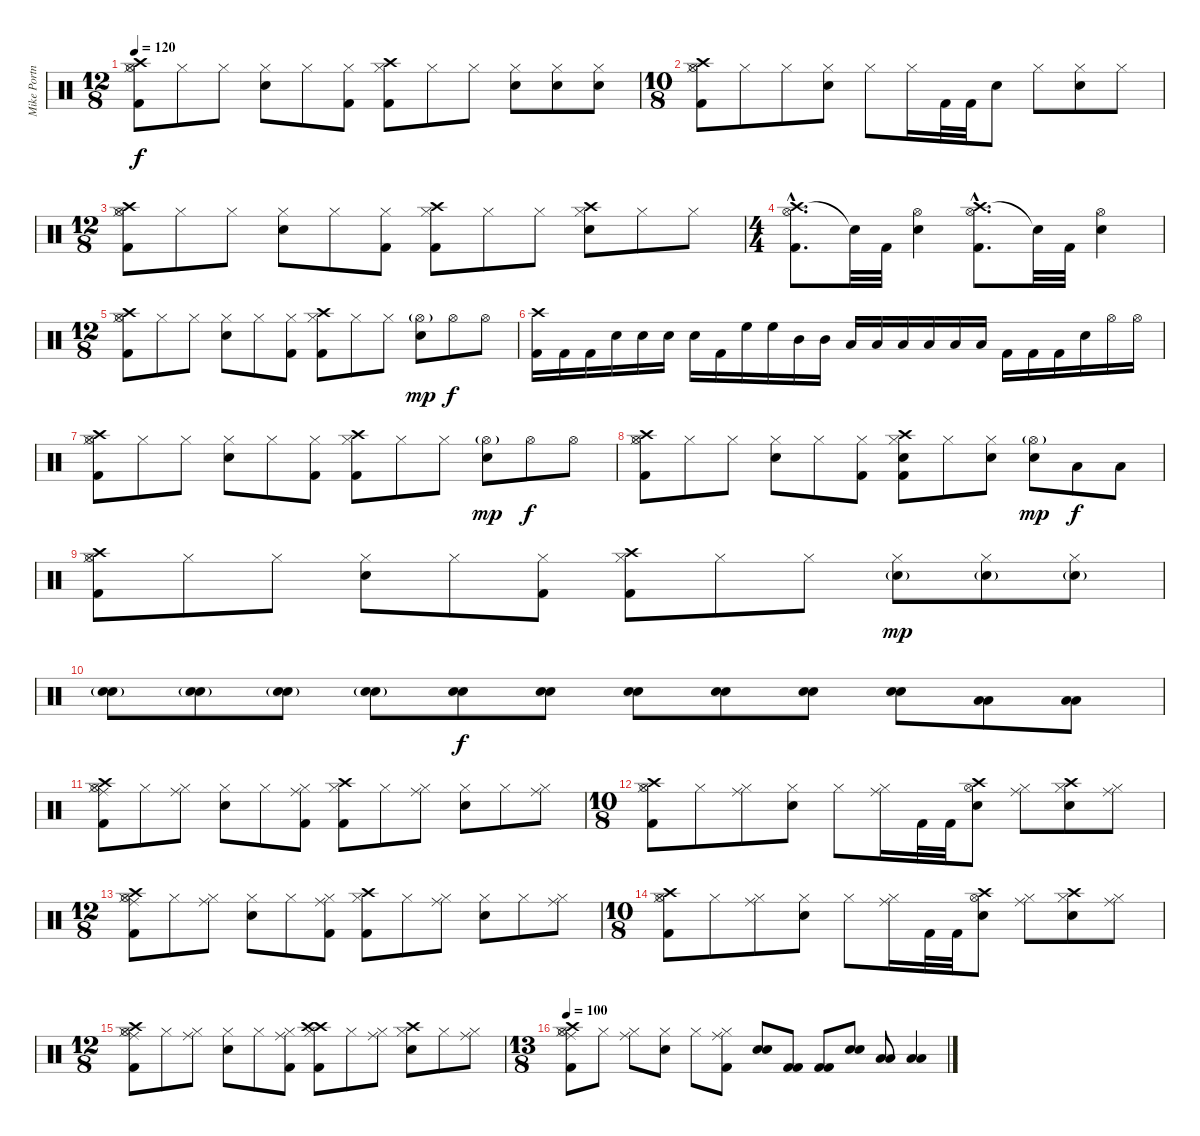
\track ("Mike Portnoy Drums" "Mike Portn") {instrument percussion}
\staff {score}
\articulation defaults
\ts (12 8)
\tempo 120
\clef neutral
\ks c
("Hi-Hat (open)" "Kick (hit) 2" "Crash high (hit)" "Hi-Hat (closed)").8{dy f} "Hi-Hat (closed)".8 "Hi-Hat (closed)".8 ("Snare (hit) 2" "Hi-Hat (closed)").8 "Hi-Hat (closed)".8 ("Kick (hit) 2" "Hi-Hat (closed)").8 ("Kick (hit) 2" "Crash high (hit)" "Hi-Hat (closed)").8 "Hi-Hat (closed)".8 "Hi-Hat (closed)".8 ("Snare (hit) 2" "Hi-Hat (closed)").8 ("Snare (hit) 2" "Hi-Hat (closed)").8 ("Snare (hit) 2" "Hi-Hat (closed)").8 |
\ts (10 8)
("Crash high (hit)" "Hi-Hat (open)" "Kick (hit) 2" "Hi-Hat (closed)").8 "Hi-Hat (closed)".8 "Hi-Hat (closed)".8 ("Snare (hit) 2" "Hi-Hat (closed)").8 "Hi-Hat (closed)".8 "Hi-Hat (closed)".16 "Kick (hit) 2".32 "Kick (hit) 2".32 "Snare (hit) 2".8 "Hi-Hat (closed)".8 ("Snare (hit) 2" "Hi-Hat (closed)").8 "Hi-Hat (closed)".8 |
\ts (12 8)
("Hi-Hat (open)" "Kick (hit) 2" "Crash high (hit)" "Hi-Hat (closed)").8 "Hi-Hat (closed)".8 "Hi-Hat (closed)".8 ("Snare (hit) 2" "Hi-Hat (closed)").8 "Hi-Hat (closed)".8 ("Kick (hit) 2" "Hi-Hat (closed)").8 ("Kick (hit) 2" "Crash high (hit)" "Hi-Hat (closed)").8 "Hi-Hat (closed)".8 "Hi-Hat (closed)".8 ("Snare (hit) 2" "Crash high (hit)" "Hi-Hat (closed)").8 "Hi-Hat (closed)".8 "Hi-Hat (closed)".8 |
\ts (4 4)
("Crash high (hit)"{hac} "Hi-Hat (open)"{hac} "Kick (hit) 2"{hac}).8{d} "Snare (hit)"{t}.32 "Kick (hit) 2".32 ("Hi-Hat (open)" "Snare (hit) 2").4 ("Crash high (hit)"{hac} "Hi-Hat (open)"{hac} "Kick (hit) 2"{hac}).8{d} "Snare (hit)"{t}.32 "Kick (hit) 2".32 ("Hi-Hat (open)" "Snare (hit) 2").4 |
\ts (12 8)
("Hi-Hat (open)" "Kick (hit) 2" "Crash high (hit)" "Hi-Hat (closed)").8 "Hi-Hat (closed)".8 "Hi-Hat (closed)".8 ("Snare (hit) 2" "Hi-Hat (closed)").8 "Hi-Hat (closed)".8 ("Kick (hit) 2" "Hi-Hat (closed)").8 ("Crash high (hit)" "Kick (hit) 2" "Hi-Hat (closed)").8 "Hi-Hat (closed)".8 "Hi-Hat (closed)".8 ("Snare (hit) 2" "Hi-Hat (open)"{g}).8{dy mp} "Hi-Hat (open)".8{dy f} "Hi-Hat (open)".8 |
("Crash high (hit)" "Kick (hit) 2").16 "Kick (hit) 2".16 "Kick (hit) 2".16 "Snare (hit) 2".16 "Snare (hit) 2".16 "Snare (hit) 2".16 "Snare (hit) 2".16 "Kick (hit) 2".16 "High Floor Tom (hit)".16 "High Floor Tom (hit)".16 "Mid Tom (hit)".16 "Mid Tom (hit)".16 "Low Tom (hit)".16 "Low Tom (hit)".16 "Low Floor Tom (hit)".16 "Low Floor Tom (hit)".16 "Low Floor Tom (hit)".16 "Low Floor Tom (hit)".16 "Kick (hit) 2".16 "Kick (hit) 2".16 "Kick (hit) 2".16 "Snare (hit) 2".16 "Hi-Hat (open)".16 "Hi-Hat (open)".16 |
("Hi-Hat (open)" "Kick (hit) 2" "Crash high (hit)" "Hi-Hat (closed)").8 "Hi-Hat (closed)".8 "Hi-Hat (closed)".8 ("Snare (hit) 2" "Hi-Hat (closed)").8 "Hi-Hat (closed)".8 ("Kick (hit) 2" "Hi-Hat (closed)").8 ("Crash high (hit)" "Kick (hit) 2" "Hi-Hat (closed)").8 "Hi-Hat (closed)".8 "Hi-Hat (closed)".8 ("Snare (hit) 2" "Hi-Hat (open)"{g}).8{dy mp} "Hi-Hat (open)".8{dy f} "Hi-Hat (open)".8 |
("Hi-Hat (open)" "Kick (hit) 2" "Crash high (hit)" "Hi-Hat (closed)").8 "Hi-Hat (closed)".8 "Hi-Hat (closed)".8 ("Snare (hit) 2" "Hi-Hat (closed)").8 "Hi-Hat (closed)".8 ("Kick (hit) 2" "Hi-Hat (closed)").8 ("Crash high (hit)" "Kick (hit) 2" "Snare (hit) 2" "Hi-Hat (closed)").8 "Hi-Hat (closed)".8 ("Snare (hit) 2" "Hi-Hat (closed)").8 ("Snare (hit) 2" "Hi-Hat (open)"{g}).8{dy mp} "Low Tom (hit)".8{dy f} "Low Floor Tom (hit)".8 |
("Hi-Hat (open)" "Kick (hit) 2" "Crash high (hit)" "Hi-Hat (closed)").8 "Hi-Hat (closed)".8 "Hi-Hat (closed)".8 ("Snare (hit) 2" "Hi-Hat (closed)").8 "Hi-Hat (closed)".8 ("Kick (hit) 2" "Hi-Hat (closed)").8 ("Crash high (hit)" "Kick (hit) 2" "Hi-Hat (closed)").8 "Hi-Hat (closed)".8 "Hi-Hat (closed)".8 ("Snare (hit) 2"{g} "Hi-Hat (closed)").8{dy mp} ("Snare (hit) 2"{g} "Hi-Hat (closed)").8 ("Snare (hit) 2"{g} "Hi-Hat (closed)").8 |
("Snare (hit) 2"{g} "Snare (hit) 2"{g}).8 ("Snare (hit) 2"{g} "Snare (hit) 2"{g}).8 ("Snare (hit) 2"{g} "Snare (hit) 2"{g}).8 ("Snare (hit) 2"{g} "Snare (hit) 2"{g}).8 ("Snare (hit) 2" "Snare (hit) 2").8{dy f} ("Snare (hit) 2" "Snare (hit) 2").8 ("Snare (hit) 2" "Snare (hit) 2").8 ("Snare (hit) 2" "Snare (hit) 2").8 ("Snare (hit) 2" "Snare (hit) 2").8 ("Snare (hit) 2" "Snare (hit) 2").8 ("Low Tom (hit)" "Low Tom (hit)").8 ("Low Floor Tom (hit)" "Low Floor Tom (hit)").8 |
("Ride (middle)" "Hi-Hat (open)" "Kick (hit) 2" "Crash high (hit)" "Hi-Hat (closed)").8 "Hi-Hat (closed)".8 ("Ride (middle)" "Hi-Hat (closed)").8 ("Snare (hit) 2" "Hi-Hat (closed)").8 "Hi-Hat (closed)".8 ("Ride (middle)" "Kick (hit) 2" "Hi-Hat (closed)").8 ("Crash high (hit)" "Kick (hit) 2" "Hi-Hat (closed)").8 "Hi-Hat (closed)".8 ("Ride (middle)" "Hi-Hat (closed)").8 ("Snare (hit) 2" "Hi-Hat (closed)").8 "Hi-Hat (closed)".8 ("Ride (middle)" "Hi-Hat (closed)").8 |
\ts (10 8)
("Crash high (hit)" "Hi-Hat (open)" "Kick (hit) 2" "Hi-Hat (closed)").8 "Hi-Hat (closed)".8 ("Ride (middle)" "Hi-Hat (closed)").8 ("Snare (hit) 2" "Hi-Hat (closed)").8 "Hi-Hat (closed)".8 ("Ride (middle)" "Hi-Hat (closed)").16 "Kick (hit) 2".32 "Kick (hit) 2".32 ("Hi-Hat (open)" "Crash high (hit)" "Snare (hit) 2").8 ("Ride (middle)" "Hi-Hat (closed)").8 ("Crash high (hit)" "Snare (hit) 2" "Hi-Hat (closed)").8 ("Ride (middle)" "Hi-Hat (closed)").8 |
\ts (12 8)
("Ride (middle)" "Hi-Hat (open)" "Kick (hit) 2" "Crash high (hit)" "Hi-Hat (closed)").8 "Hi-Hat (closed)".8 ("Ride (middle)" "Hi-Hat (closed)").8 ("Snare (hit) 2" "Hi-Hat (closed)").8 "Hi-Hat (closed)".8 ("Ride (middle)" "Kick (hit) 2" "Hi-Hat (closed)").8 ("Crash high (hit)" "Kick (hit) 2" "Hi-Hat (closed)").8 "Hi-Hat (closed)".8 ("Ride (middle)" "Hi-Hat (closed)").8 ("Snare (hit) 2" "Hi-Hat (closed)").8 "Hi-Hat (closed)".8 ("Ride (middle)" "Hi-Hat (closed)").8 |
\ts (10 8)
("Crash high (hit)" "Hi-Hat (open)" "Kick (hit) 2" "Hi-Hat (closed)").8 "Hi-Hat (closed)".8 ("Ride (middle)" "Hi-Hat (closed)").8 ("Snare (hit) 2" "Hi-Hat (closed)").8 "Hi-Hat (closed)".8 ("Ride (middle)" "Hi-Hat (closed)").16 "Kick (hit) 2".32 "Kick (hit) 2".32 ("Hi-Hat (open)" "Crash high (hit)" "Snare (hit) 2").8 ("Ride (middle)" "Hi-Hat (closed)").8 ("Crash high (hit)" "Snare (hit) 2" "Hi-Hat (closed)").8 ("Ride (middle)" "Hi-Hat (closed)").8 |
\ts (12 8)
("Ride (middle)" "Hi-Hat (open)" "Kick (hit) 2" "Crash high (hit)" "Hi-Hat (closed)").8 "Hi-Hat (closed)".8 ("Ride (middle)" "Hi-Hat (closed)").8 ("Snare (hit) 2" "Hi-Hat (closed)").8 "Hi-Hat (closed)".8 ("Ride (middle)" "Kick (hit) 2" "Hi-Hat (closed)").8 ("Crash high (hit)" "Kick (hit) 2" "Crash high (hit)" "Hi-Hat (closed)").8 "Hi-Hat (closed)".8 ("Ride (middle)" "Hi-Hat (closed)").8 ("Snare (hit) 2" "Crash high (hit)" "Hi-Hat (closed)").8 "Hi-Hat (closed)".8 ("Ride (middle)" "Hi-Hat (closed)").8 |
\ts (13 8)
\tempo 100
("Ride (middle)" "Hi-Hat (open)" "Kick (hit) 2" "Crash high (hit)" "Hi-Hat (closed)").8 "Hi-Hat (closed)".8 ("Ride (middle)" "Hi-Hat (closed)").8 ("Snare (hit) 2" "Hi-Hat (closed)").8 "Hi-Hat (closed)".8 ("Ride (middle)" "Kick (hit) 2" "Hi-Hat (closed)").8 ("Snare (hit) 2" "Snare (hit) 2").8 ("Kick (hit) 2" "Kick (hit) 2").8 ("Kick (hit) 2" "Kick (hit) 2").8 ("Snare (hit) 2" "Snare (hit) 2").8 ("Low Tom (hit)" "Low Tom (hit)").8 ("Low Floor Tom (hit)" "Low Floor Tom (hit)").4
